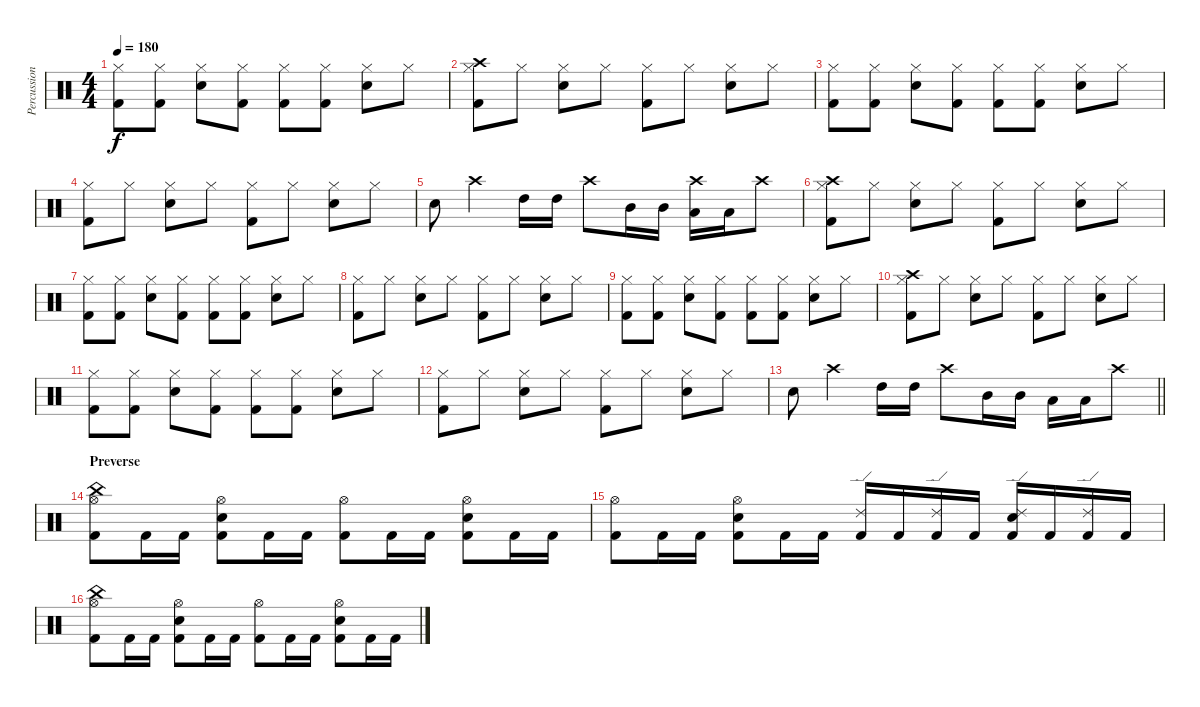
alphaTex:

\track ("Percussion" "Percussion") {instrument percussion}
\staff {score}
\articulation defaults
\ts (4 4)
\tempo 180
\clef neutral
\ks c
("Hi-Hat (closed)" "Kick (hit) 2").8{dy f} ("Hi-Hat (closed)" "Kick (hit) 2").8 ("Hi-Hat (closed)" "Snare (hit) 2").8 ("Hi-Hat (closed)" "Kick (hit) 2").8 ("Hi-Hat (closed)" "Kick (hit) 2").8 ("Hi-Hat (closed)" "Kick (hit) 2").8 ("Hi-Hat (closed)" "Snare (hit) 2").8 "Hi-Hat (closed)".8 |
("Crash high (hit)" "Hi-Hat (closed)" "Kick (hit) 2").8 "Hi-Hat (closed)".8 ("Hi-Hat (closed)" "Snare (hit) 2").8 "Hi-Hat (closed)".8 ("Hi-Hat (closed)" "Kick (hit) 2").8 "Hi-Hat (closed)".8 ("Hi-Hat (closed)" "Snare (hit) 2").8 "Hi-Hat (closed)".8 |
("Hi-Hat (closed)" "Kick (hit) 2").8 ("Hi-Hat (closed)" "Kick (hit) 2").8 ("Hi-Hat (closed)" "Snare (hit) 2").8 ("Hi-Hat (closed)" "Kick (hit) 2").8 ("Hi-Hat (closed)" "Kick (hit) 2").8 ("Hi-Hat (closed)" "Kick (hit) 2").8 ("Hi-Hat (closed)" "Snare (hit) 2").8 "Hi-Hat (closed)".8 |
("Hi-Hat (closed)" "Kick (hit) 2").8 "Hi-Hat (closed)".8 ("Hi-Hat (closed)" "Snare (hit) 2").8 "Hi-Hat (closed)".8 ("Hi-Hat (closed)" "Kick (hit) 2").8 "Hi-Hat (closed)".8 ("Hi-Hat (closed)" "Snare (hit) 2").8 "Hi-Hat (closed)".8 |
"Snare (hit) 2".8 "Crash high (hit)".4 "High Tom (hit)".16 "High Tom (hit)".16 "Crash high (hit)".8 "Mid Tom (hit)".16 "Mid Tom (hit)".16 ("Crash high (hit)" "Low Tom (hit)").16 "Low Tom (hit)".16 "Crash high (hit)".8 |
("Crash high (hit)" "Hi-Hat (closed)" "Kick (hit) 2").8 "Hi-Hat (closed)".8 ("Hi-Hat (closed)" "Snare (hit) 2").8 "Hi-Hat (closed)".8 ("Hi-Hat (closed)" "Kick (hit) 2").8 "Hi-Hat (closed)".8 ("Hi-Hat (closed)" "Snare (hit) 2").8 "Hi-Hat (closed)".8 |
("Hi-Hat (closed)" "Kick (hit) 2").8 ("Hi-Hat (closed)" "Kick (hit) 2").8 ("Hi-Hat (closed)" "Snare (hit) 2").8 ("Hi-Hat (closed)" "Kick (hit) 2").8 ("Hi-Hat (closed)" "Kick (hit) 2").8 ("Hi-Hat (closed)" "Kick (hit) 2").8 ("Hi-Hat (closed)" "Snare (hit) 2").8 "Hi-Hat (closed)".8 |
("Hi-Hat (closed)" "Kick (hit) 2").8 "Hi-Hat (closed)".8 ("Hi-Hat (closed)" "Snare (hit) 2").8 "Hi-Hat (closed)".8 ("Hi-Hat (closed)" "Kick (hit) 2").8 "Hi-Hat (closed)".8 ("Hi-Hat (closed)" "Snare (hit) 2").8 "Hi-Hat (closed)".8 |
("Hi-Hat (closed)" "Kick (hit) 2").8 ("Hi-Hat (closed)" "Kick (hit) 2").8 ("Hi-Hat (closed)" "Snare (hit) 2").8 ("Hi-Hat (closed)" "Kick (hit) 2").8 ("Hi-Hat (closed)" "Kick (hit) 2").8 ("Hi-Hat (closed)" "Kick (hit) 2").8 ("Hi-Hat (closed)" "Snare (hit) 2").8 "Hi-Hat (closed)".8 |
("Crash high (hit)" "Hi-Hat (closed)" "Kick (hit) 2").8 "Hi-Hat (closed)".8 ("Hi-Hat (closed)" "Snare (hit) 2").8 "Hi-Hat (closed)".8 ("Hi-Hat (closed)" "Kick (hit) 2").8 "Hi-Hat (closed)".8 ("Hi-Hat (closed)" "Snare (hit) 2").8 "Hi-Hat (closed)".8 |
("Hi-Hat (closed)" "Kick (hit) 2").8 ("Hi-Hat (closed)" "Kick (hit) 2").8 ("Hi-Hat (closed)" "Snare (hit) 2").8 ("Hi-Hat (closed)" "Kick (hit) 2").8 ("Hi-Hat (closed)" "Kick (hit) 2").8 ("Hi-Hat (closed)" "Kick (hit) 2").8 ("Hi-Hat (closed)" "Snare (hit) 2").8 "Hi-Hat (closed)".8 |
("Hi-Hat (closed)" "Kick (hit) 2").8 "Hi-Hat (closed)".8 ("Hi-Hat (closed)" "Snare (hit) 2").8 "Hi-Hat (closed)".8 ("Hi-Hat (closed)" "Kick (hit) 2").8 "Hi-Hat (closed)".8 ("Hi-Hat (closed)" "Snare (hit) 2").8 "Hi-Hat (closed)".8 |
\barLineRight lightlight "Snare (hit) 2".8 "Crash high (hit)".4 "High Tom (hit)".16 "High Tom (hit)".16 "Crash high (hit)".8 "Mid Tom (hit)".16 "Mid Tom (hit)".16 "Low Tom (hit)".16 "Low Tom (hit)".16 "Crash high (hit)".8
|
\section ("" "Preverse")
("China (hit)" "Hi-Hat (open)" "Kick (hit) 2").8 "Kick (hit) 2".16 "Kick (hit) 2".16 ("Hi-Hat (open)" "Snare (hit) 2" "Kick (hit) 2").8 "Kick (hit) 2".16 "Kick (hit) 2".16 ("Hi-Hat (open)" "Kick (hit) 2").8 "Kick (hit) 2".16 "Kick (hit) 2".16 ("Hi-Hat (open)" "Snare (hit) 2" "Kick (hit) 2").8 "Kick (hit) 2".16 "Kick (hit) 2".16 |
("Hi-Hat (open)" "Kick (hit) 2").8 "Kick (hit) 2".16 "Kick (hit) 2".16 ("Hi-Hat (open)" "Snare (hit) 2" "Kick (hit) 2").8 "Kick (hit) 2".16 "Kick (hit) 2".16 ("Ride (edge) 2" "Kick (hit) 2").16 "Kick (hit) 2".16 ("Ride (edge) 2" "Kick (hit) 2").16 "Kick (hit) 2".16 ("Ride (edge) 2" "Snare (hit) 2" "Kick (hit) 2").16 "Kick (hit) 2".16 ("Ride (edge) 2" "Kick (hit) 2").16 "Kick (hit) 2".16 |
("China (hit)" "Hi-Hat (open)" "Kick (hit) 2").8 "Kick (hit) 2".16 "Kick (hit) 2".16 ("Hi-Hat (open)" "Snare (hit) 2" "Kick (hit) 2").8 "Kick (hit) 2".16 "Kick (hit) 2".16 ("Hi-Hat (open)" "Kick (hit) 2").8 "Kick (hit) 2".16 "Kick (hit) 2".16 ("Hi-Hat (open)" "Snare (hit) 2" "Kick (hit) 2").8 "Kick (hit) 2".16 "Kick (hit) 2".16
